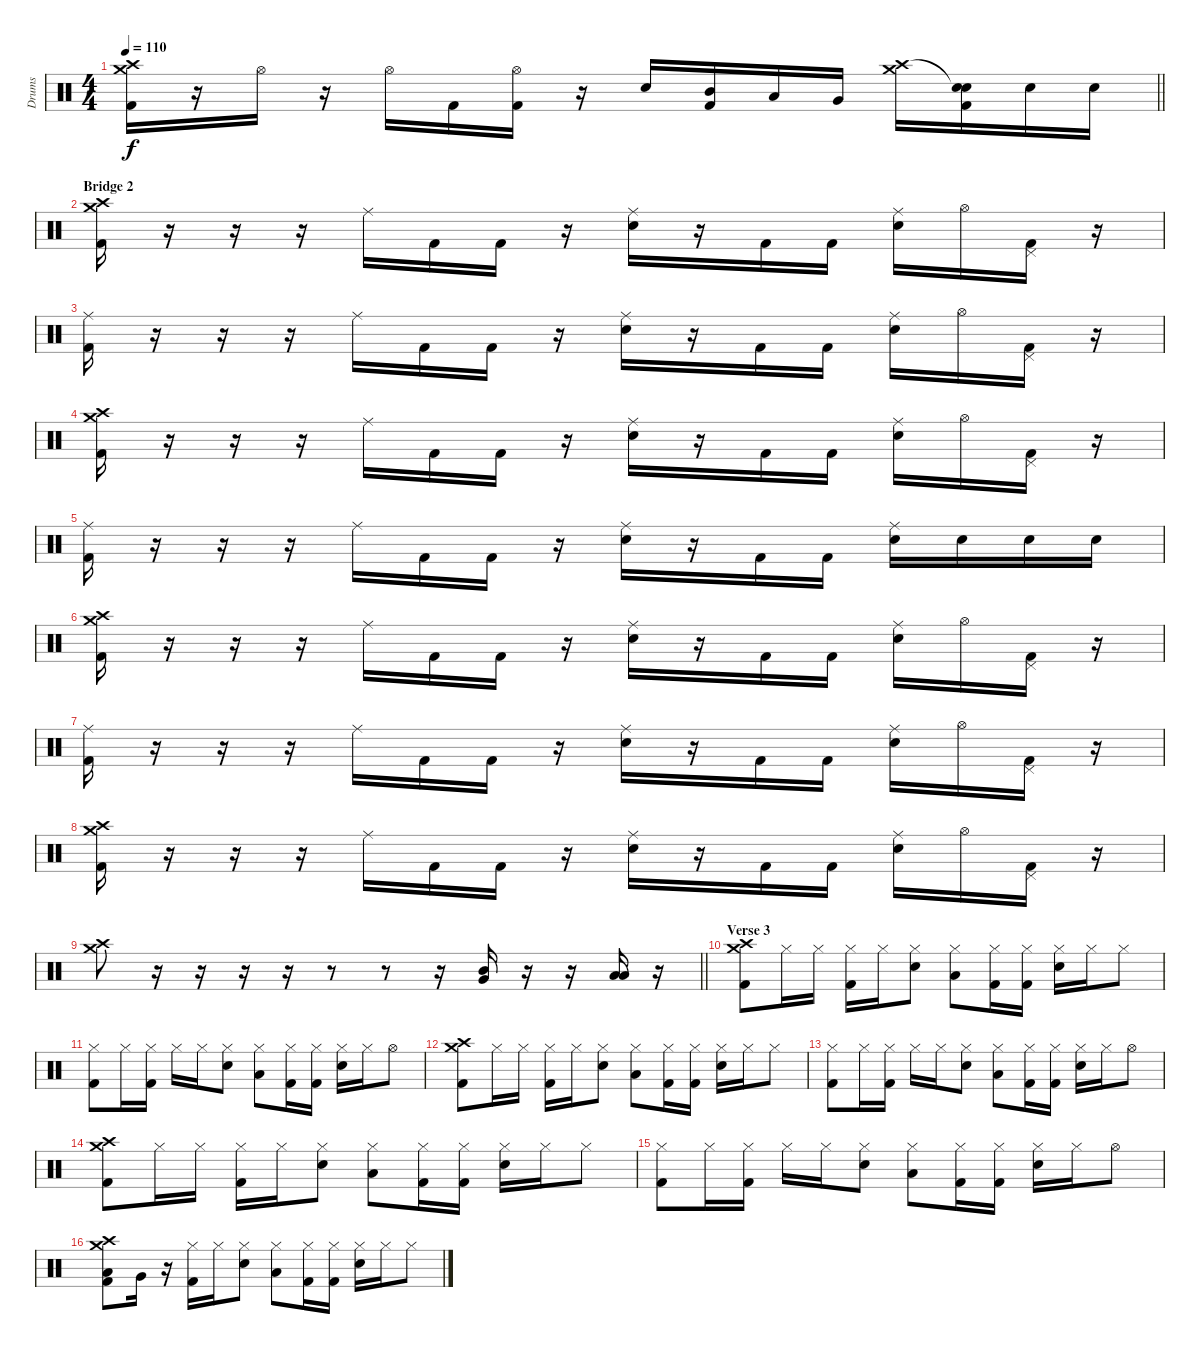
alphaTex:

\track ("Drums" "Drums") {instrument percussion}
\staff {score}
\articulation defaults
\ts (4 4)
\tempo 110
\clef neutral
\barLineRight lightlight
\ks c
("Crash medium (hit)" "Crash high (hit)" "Kick (hit) 2").16{dy f} r.16 "Hi-Hat (open)".16 r.16 "Hi-Hat (open)".16 "Kick (hit) 2".16 ("Hi-Hat (open)" "Kick (hit) 2").16 r.16 "Snare (hit) 2".16 ("Mid Tom (hit)" "Kick (hit) 2").16 "Low Tom (hit)".16 "Very Low Tom (hit)".16 ("Crash high (hit)" "Crash medium (hit)").16 ("Snare (hit)"{t} "Snare (hit) 2" "Kick (hit) 2").16 "Snare (hit) 2".16 "Snare (hit) 2".16 |
\section ("" "Bridge 2")
("Crash medium (hit)" "Crash high (hit)" "Kick (hit) 2").16 r.16 r.16 r.16 "Ride (middle)".16 "Kick (hit) 2".16 "Kick (hit) 2".16 r.16 ("Ride (middle)" "Snare (hit) 2").16 r.16 "Kick (hit) 2".16 "Kick (hit) 2".16 ("Ride (middle)" "Snare (hit) 2").16 "Hi-Hat (open)".16 ("Pedal Hi-Hat (hit)" "Kick (hit) 2").16 r.16 |
("Ride (middle)" "Kick (hit) 2").16 r.16 r.16 r.16 "Ride (middle)".16 "Kick (hit) 2".16 "Kick (hit) 2".16 r.16 ("Ride (middle)" "Snare (hit) 2").16 r.16 "Kick (hit) 2".16 "Kick (hit) 2".16 ("Ride (middle)" "Snare (hit) 2").16 "Hi-Hat (open)".16 ("Pedal Hi-Hat (hit)" "Kick (hit) 2").16 r.16 |
("Crash medium (hit)" "Crash high (hit)" "Kick (hit) 2").16 r.16 r.16 r.16 "Ride (middle)".16 "Kick (hit) 2".16 "Kick (hit) 2".16 r.16 ("Ride (middle)" "Snare (hit) 2").16 r.16 "Kick (hit) 2".16 "Kick (hit) 2".16 ("Ride (middle)" "Snare (hit) 2").16 "Hi-Hat (open)".16 ("Pedal Hi-Hat (hit)" "Kick (hit) 2").16 r.16 |
("Ride (middle)" "Kick (hit) 2").16 r.16 r.16 r.16 "Ride (middle)".16 "Kick (hit) 2".16 "Kick (hit) 2".16 r.16 ("Ride (middle)" "Snare (hit) 2").16 r.16 "Kick (hit) 2".16 "Kick (hit) 2".16 ("Ride (middle)" "Snare (hit) 2").16 "Snare (hit) 2".16 "Snare (hit) 2".16 "Snare (hit) 2".16 |
("Crash medium (hit)" "Crash high (hit)" "Kick (hit) 2").16 r.16 r.16 r.16 "Ride (middle)".16 "Kick (hit) 2".16 "Kick (hit) 2".16 r.16 ("Ride (middle)" "Snare (hit) 2").16 r.16 "Kick (hit) 2".16 "Kick (hit) 2".16 ("Ride (middle)" "Snare (hit) 2").16 "Hi-Hat (open)".16 ("Pedal Hi-Hat (hit)" "Kick (hit) 2").16 r.16 |
("Ride (middle)" "Kick (hit) 2").16 r.16 r.16 r.16 "Ride (middle)".16 "Kick (hit) 2".16 "Kick (hit) 2".16 r.16 ("Ride (middle)" "Snare (hit) 2").16 r.16 "Kick (hit) 2".16 "Kick (hit) 2".16 ("Ride (middle)" "Snare (hit) 2").16 "Hi-Hat (open)".16 ("Pedal Hi-Hat (hit)" "Kick (hit) 2").16 r.16 |
("Crash medium (hit)" "Crash high (hit)" "Kick (hit) 2").16 r.16 r.16 r.16 "Ride (middle)".16 "Kick (hit) 2".16 "Kick (hit) 2".16 r.16 ("Ride (middle)" "Snare (hit) 2").16 r.16 "Kick (hit) 2".16 "Kick (hit) 2".16 ("Ride (middle)" "Snare (hit) 2").16 "Hi-Hat (open)".16 ("Pedal Hi-Hat (hit)" "Kick (hit) 2").16 r.16 |
\barLineRight lightlight
("Crash medium (hit)" "Crash high (hit)").8 r.16 r.16 r.16 r.16 r.8 r.8 r.16 ("Very Low Tom (hit)" "Mid Tom (hit)").16 r.16 r.16 ("Low Floor Tom (hit)" "Low Tom (hit)").16 r.16 |
\section ("" "Verse 3")
("Crash medium (hit)" "Crash high (hit)" "Kick (hit) 2").8 "Hi-Hat (closed)".16 "Hi-Hat (closed)".16 ("Hi-Hat (closed)" "Kick (hit) 2").16 "Hi-Hat (closed)".16 ("Hi-Hat (closed)" "Snare (hit) 2").8 ("Hi-Hat (closed)" "Low Tom (hit)").8 ("Hi-Hat (closed)" "Kick (hit) 2").16 ("Hi-Hat (closed)" "Kick (hit) 2").16 ("Hi-Hat (closed)" "Snare (hit) 2").16 "Hi-Hat (closed)".16 "Hi-Hat (closed)".8 |
("Hi-Hat (closed)" "Kick (hit) 2").8 "Hi-Hat (closed)".16 ("Hi-Hat (closed)" "Kick (hit) 2").16 "Hi-Hat (closed)".16 "Hi-Hat (closed)".16 ("Hi-Hat (closed)" "Snare (hit) 2").8 ("Hi-Hat (closed)" "Low Tom (hit)").8 ("Hi-Hat (closed)" "Kick (hit) 2").16 ("Hi-Hat (closed)" "Kick (hit) 2").16 ("Hi-Hat (closed)" "Snare (hit) 2").16 "Hi-Hat (closed)".16 "Hi-Hat (open)".8 |
("Crash medium (hit)" "Crash high (hit)" "Kick (hit) 2").8 "Hi-Hat (closed)".16 "Hi-Hat (closed)".16 ("Hi-Hat (closed)" "Kick (hit) 2").16 "Hi-Hat (closed)".16 ("Hi-Hat (closed)" "Snare (hit) 2").8 ("Hi-Hat (closed)" "Low Tom (hit)").8 ("Hi-Hat (closed)" "Kick (hit) 2").16 ("Hi-Hat (closed)" "Kick (hit) 2").16 ("Hi-Hat (closed)" "Snare (hit) 2").16 "Hi-Hat (closed)".16 "Hi-Hat (closed)".8 |
("Hi-Hat (closed)" "Kick (hit) 2").8 "Hi-Hat (closed)".16 ("Hi-Hat (closed)" "Kick (hit) 2").16 "Hi-Hat (closed)".16 "Hi-Hat (closed)".16 ("Hi-Hat (closed)" "Snare (hit) 2").8 ("Hi-Hat (closed)" "Low Tom (hit)").8 ("Hi-Hat (closed)" "Kick (hit) 2").16 ("Hi-Hat (closed)" "Kick (hit) 2").16 ("Hi-Hat (closed)" "Snare (hit) 2").16 "Hi-Hat (closed)".16 "Hi-Hat (open)".8 |
("Crash medium (hit)" "Crash high (hit)" "Kick (hit) 2").8 "Hi-Hat (closed)".16 "Hi-Hat (closed)".16 ("Hi-Hat (closed)" "Kick (hit) 2").16 "Hi-Hat (closed)".16 ("Hi-Hat (closed)" "Snare (hit) 2").8 ("Hi-Hat (closed)" "Low Tom (hit)").8 ("Hi-Hat (closed)" "Kick (hit) 2").16 ("Hi-Hat (closed)" "Kick (hit) 2").16 ("Hi-Hat (closed)" "Snare (hit) 2").16 "Hi-Hat (closed)".16 "Hi-Hat (closed)".8 |
("Hi-Hat (closed)" "Kick (hit) 2").8 "Hi-Hat (closed)".16 ("Hi-Hat (closed)" "Kick (hit) 2").16 "Hi-Hat (closed)".16 "Hi-Hat (closed)".16 ("Hi-Hat (closed)" "Snare (hit) 2").8 ("Hi-Hat (closed)" "Low Tom (hit)").8 ("Hi-Hat (closed)" "Kick (hit) 2").16 ("Hi-Hat (closed)" "Kick (hit) 2").16 ("Hi-Hat (closed)" "Snare (hit) 2").16 "Hi-Hat (closed)".16 "Hi-Hat (open)".8 |
("Crash medium (hit)" "Crash high (hit)" "Low Tom (hit)" "Kick (hit) 2").8 "Very Low Tom (hit)".16 r.16 ("Hi-Hat (closed)" "Kick (hit) 2").16 "Hi-Hat (closed)".16 ("Hi-Hat (closed)" "Snare (hit) 2").8 ("Hi-Hat (closed)" "Low Tom (hit)").8 ("Hi-Hat (closed)" "Kick (hit) 2").16 ("Hi-Hat (closed)" "Kick (hit) 2").16 ("Hi-Hat (closed)" "Snare (hit) 2").16 "Hi-Hat (closed)".16 "Hi-Hat (closed)".8
